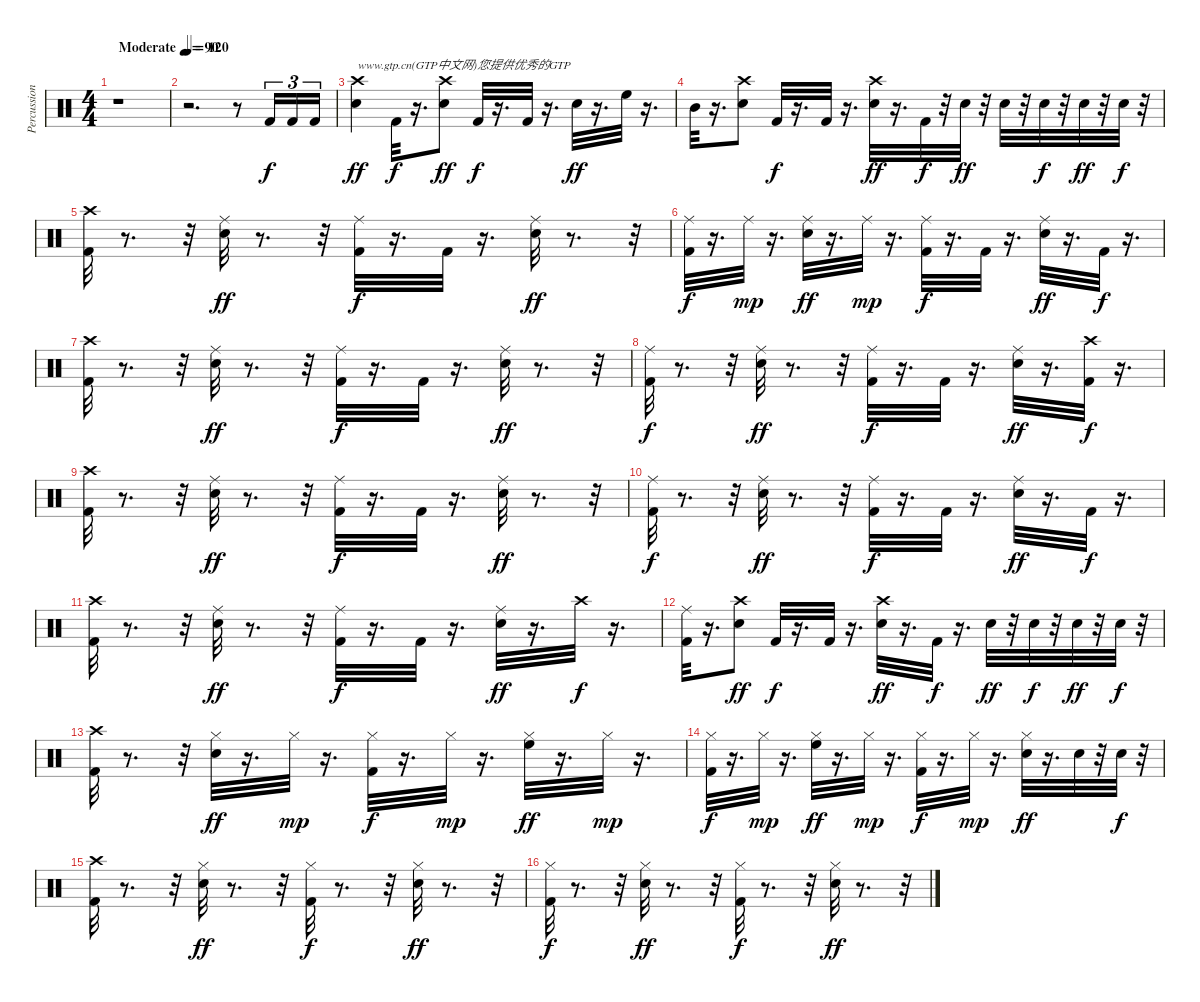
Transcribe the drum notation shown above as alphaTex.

\track ("Percussion" "Percussion") {instrument percussion}
\staff {score}
\articulation defaults
\ts (4 4)
\tempo (90 "Moderate")
\clef neutral
\ks c
r.1{dy f} |
\tempo 120
r.2{d} r.8 "Kick (hit) 2".16{tu (3 2)} "Kick (hit) 2".16{tu (3 2)} "Kick (hit) 2".16{tu (3 2)} |
("Crash high (hit)" "Snare (hit) 2").4{txt "www.gtp.cn(GTP中文网)您提供优秀的GTP" dy ff} "Kick (hit) 2".32{dy f} r.16{d} ("Snare (hit) 2" "Crash high (hit)").8{dy ff} "Kick (hit) 2".32{dy f} r.16{d} "Kick (hit) 2".32 r.16{d} "Snare (hit) 2".32{dy ff} r.16{d} "High Floor Tom (hit)".32 r.16{d} |
"Mid Tom (hit)".32 r.16{d} ("Crash high (hit)" "Snare (hit) 2").8 "Kick (hit) 2".32{dy f} r.16{d} "Kick (hit) 2".32 r.16{d} ("Crash high (hit)" "Snare (hit) 2").32{dy ff} r.16{d} "Kick (hit) 2".32{dy f} r.32 "Snare (hit) 2".32{dy ff} r.32 "Snare (hit) 2".32 r.32 "Snare (hit) 2".32{dy f} r.32 "Snare (hit) 2".32{dy ff} r.32 "Snare (hit) 2".32{dy f} r.32 |
("Crash high (hit)" "Kick (hit) 2").32 r.8{d} r.32 ("Snare (hit) 2" "Ride (middle)").32{dy ff} r.8{d} r.32 ("Ride (middle)" "Kick (hit) 2").32{dy f} r.16{d} "Kick (hit) 2".32 r.16{d} ("Snare (hit) 2" "Ride (middle)").32{dy ff} r.8{d} r.32 |
("Ride (middle)" "Kick (hit) 2").32{dy f} r.16{d} "Ride (middle)".32{dy mp} r.16{d} ("Snare (hit) 2" "Ride (middle)").32{dy ff} r.16{d} "Ride (middle)".32{dy mp} r.16{d} ("Ride (middle)" "Kick (hit) 2").32{dy f} r.16{d} "Kick (hit) 2".32 r.16{d} ("Snare (hit) 2" "Ride (middle)").32{dy ff} r.16{d} "Kick (hit) 2".32{dy f} r.16{d} |
("Crash high (hit)" "Kick (hit) 2").32 r.8{d} r.32 ("Snare (hit) 2" "Ride (middle)").32{dy ff} r.8{d} r.32 ("Ride (middle)" "Kick (hit) 2").32{dy f} r.16{d} "Kick (hit) 2".32 r.16{d} ("Snare (hit) 2" "Ride (middle)").32{dy ff} r.8{d} r.32 |
("Ride (middle)" "Kick (hit) 2").32{dy f} r.8{d} r.32 ("Snare (hit) 2" "Ride (middle)").32{dy ff} r.8{d} r.32 ("Ride (middle)" "Kick (hit) 2").32{dy f} r.16{d} "Kick (hit) 2".32 r.16{d} ("Ride (middle)" "Snare (hit) 2").32{dy ff} r.16{d} ("Crash high (hit)" "Kick (hit) 2").32{dy f} r.16{d} |
("Crash high (hit)" "Kick (hit) 2").32 r.8{d} r.32 ("Snare (hit) 2" "Ride (middle)").32{dy ff} r.8{d} r.32 ("Ride (middle)" "Kick (hit) 2").32{dy f} r.16{d} "Kick (hit) 2".32 r.16{d} ("Snare (hit) 2" "Ride (middle)").32{dy ff} r.8{d} r.32 |
("Ride (middle)" "Kick (hit) 2").32{dy f} r.8{d} r.32 ("Snare (hit) 2" "Ride (middle)").32{dy ff} r.8{d} r.32 ("Ride (middle)" "Kick (hit) 2").32{dy f} r.16{d} "Kick (hit) 2".32 r.16{d} ("Snare (hit) 2" "Ride (middle)").32{dy ff} r.16{d} "Kick (hit) 2".32{dy f} r.16{d} |
("Crash high (hit)" "Kick (hit) 2").32 r.8{d} r.32 ("Snare (hit) 2" "Ride (middle)").32{dy ff} r.8{d} r.32 ("Ride (middle)" "Kick (hit) 2").32{dy f} r.16{d} "Kick (hit) 2".32 r.16{d} ("Ride (middle)" "Snare (hit) 2").32{dy ff} r.16{d} "Crash high (hit)".32{dy f} r.16{d} |
("Ride (middle)" "Kick (hit) 2").32 r.16{d} ("Snare (hit) 2" "Crash high (hit)").8{dy ff} "Kick (hit) 2".32{dy f} r.16{d} "Kick (hit) 2".32 r.16{d} ("Snare (hit) 2" "Crash high (hit)").32{dy ff} r.16{d} "Kick (hit) 2".32{dy f} r.16{d} "Snare (hit) 2".32{dy ff} r.32 "Snare (hit) 2".32{dy f} r.32 "Snare (hit) 2".32{dy ff} r.32 "Snare (hit) 2".32{dy f} r.32 |
("Crash high (hit)" "Kick (hit) 2").32 r.8{d} r.32 ("Hi-Hat (closed)" "Snare (hit) 2").32{dy ff} r.16{d} "Hi-Hat (closed)".32{dy mp} r.16{d} ("Hi-Hat (closed)" "Kick (hit) 2").32{dy f} r.16{d} "Hi-Hat (closed)".32{dy mp} r.16{d} ("High Floor Tom (hit)" "Hi-Hat (closed)").32{dy ff} r.16{d} "Hi-Hat (closed)".32{dy mp} r.16{d} |
("Hi-Hat (closed)" "Kick (hit) 2").32{dy f} r.16{d} "Hi-Hat (closed)".32{dy mp} r.16{d} ("High Floor Tom (hit)" "Hi-Hat (closed)").32{dy ff} r.16{d} "Hi-Hat (closed)".32{dy mp} r.16{d} ("Hi-Hat (closed)" "Kick (hit) 2").32{dy f} r.16{d} "Hi-Hat (closed)".32{dy mp} r.16{d} ("Snare (hit) 2" "Hi-Hat (closed)").32{dy ff} r.16{d} "Snare (hit) 2".32 r.32 "Snare (hit) 2".32{dy f} r.32 |
("Crash high (hit)" "Kick (hit) 2").32 r.8{d} r.32 ("Snare (hit) 2" "Hi-Hat (closed)").32{dy ff} r.8{d} r.32 ("Hi-Hat (closed)" "Kick (hit) 2").32{dy f} r.8{d} r.32 ("Snare (hit) 2" "Hi-Hat (closed)").32{dy ff} r.8{d} r.32 |
("Hi-Hat (closed)" "Kick (hit) 2").32{dy f} r.8{d} r.32 ("Snare (hit) 2" "Hi-Hat (closed)").32{dy ff} r.8{d} r.32 ("Hi-Hat (closed)" "Kick (hit) 2").32{dy f} r.8{d} r.32 ("Snare (hit) 2" "Hi-Hat (closed)").32{dy ff} r.8{d} r.32
